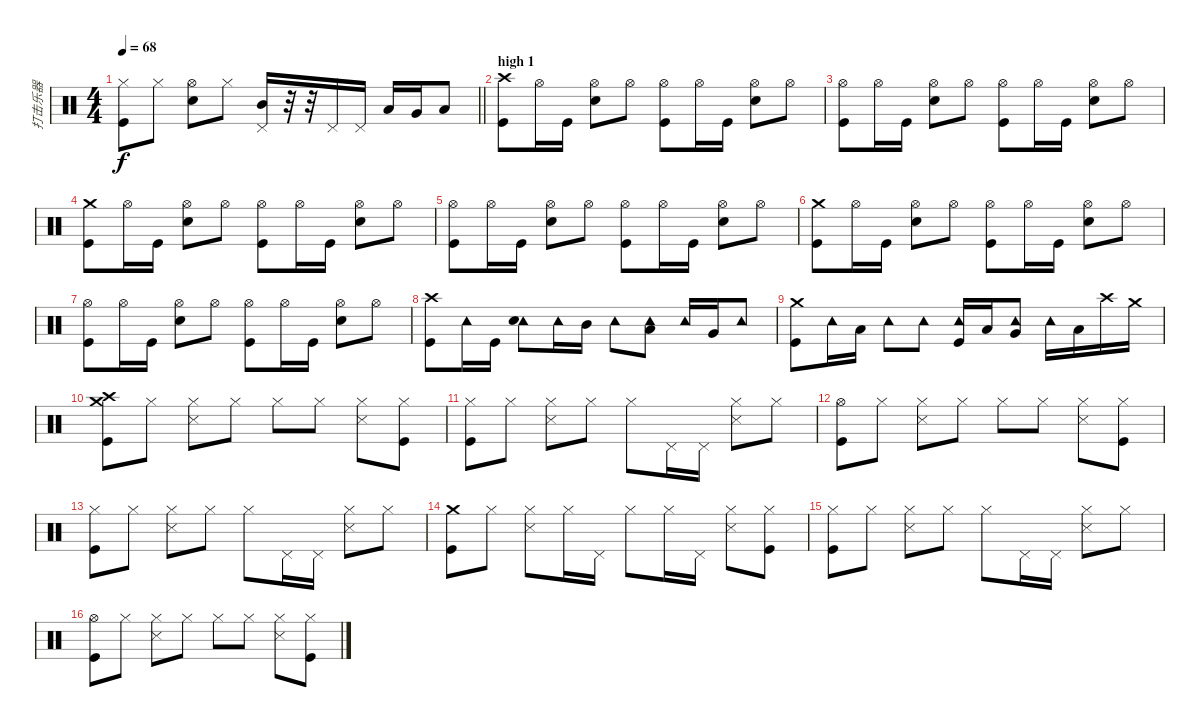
\track ("打击乐器" "打击乐器") {instrument percussion}
\staff {score}
\articulation defaults
\ts (4 4)
\tempo 68
\clef neutral
\barLineRight lightlight
\ks c
("Kick (hit)" "Hi-Hat (closed)").8{dy f} "Hi-Hat (closed)".8 ("Snare (hit) 2" "Hi-Hat (open)").8 "Hi-Hat (closed)".8 ("Mid Tom (hit)" "Pedal Hi-Hat (hit)").16 r.32 r.32 "Pedal Hi-Hat (hit)".16 "Pedal Hi-Hat (hit)".16 "Low Tom (hit)".16 "Very Low Tom (hit)".16 "Low Floor Tom (hit)".8 |
\section ("" "high 1")
("Kick (hit)" "Crash high (hit)").8 "Hi-Hat (open)".16 "Kick (hit)".16 ("Hi-Hat (open)" "Snare (hit) 2").8 "Hi-Hat (open)".8 ("Hi-Hat (open)" "Kick (hit)").8 "Hi-Hat (open)".16 "Kick (hit)".16 ("Hi-Hat (open)" "Snare (hit) 2").8 "Hi-Hat (open)".8 |
("Hi-Hat (open)" "Kick (hit)").8 "Hi-Hat (open)".16 "Kick (hit)".16 ("Hi-Hat (open)" "Snare (hit) 2").8 "Hi-Hat (open)".8 ("Hi-Hat (open)" "Kick (hit)").8 "Hi-Hat (open)".16 "Kick (hit)".16 ("Hi-Hat (open)" "Snare (hit) 2").8 "Hi-Hat (open)".8 |
("Kick (hit)" "Crash medium (hit)").8 "Hi-Hat (open)".16 "Kick (hit)".16 ("Hi-Hat (open)" "Snare (hit) 2").8 "Hi-Hat (open)".8 ("Hi-Hat (open)" "Kick (hit)").8 "Hi-Hat (open)".16 "Kick (hit)".16 ("Hi-Hat (open)" "Snare (hit) 2").8 "Hi-Hat (open)".8 |
("Hi-Hat (open)" "Kick (hit)").8 "Hi-Hat (open)".16 "Kick (hit)".16 ("Hi-Hat (open)" "Snare (hit) 2").8 "Hi-Hat (open)".8 ("Hi-Hat (open)" "Kick (hit)").8 "Hi-Hat (open)".16 "Kick (hit)".16 ("Hi-Hat (open)" "Snare (hit) 2").8 "Hi-Hat (open)".8 |
("Kick (hit)" "Crash medium (hit)").8 "Hi-Hat (open)".16 "Kick (hit)".16 ("Hi-Hat (open)" "Snare (hit) 2").8 "Hi-Hat (open)".8 ("Hi-Hat (open)" "Kick (hit)").8 "Hi-Hat (open)".16 "Kick (hit)".16 ("Hi-Hat (open)" "Snare (hit) 2").8 "Hi-Hat (open)".8 |
("Hi-Hat (open)" "Kick (hit)").8 "Hi-Hat (open)".16 "Kick (hit)".16 ("Hi-Hat (open)" "Snare (hit) 2").8 "Hi-Hat (open)".8 ("Hi-Hat (open)" "Kick (hit)").8 "Hi-Hat (open)".16 "Kick (hit)".16 ("Hi-Hat (open)" "Snare (hit) 2").8 "Hi-Hat (open)".8 |
("Crash high (hit)" "Kick (hit)").8 "Tambourine (hit)".16 "Kick (hit)".16 ("Tambourine (hit)" "Snare (hit) 2").8 "Tambourine (hit)".16 "Mid Tom (hit)".16 "Tambourine (hit)".8 ("Tambourine (hit)" "Low Tom (hit)").8 "Tambourine (hit)".16 "Very Low Tom (hit)".16 "Tambourine (hit)".8 |
("Kick (hit)" "Crash medium (hit)").8 "Tambourine (hit)".16 "Low Tom (hit)".16 "Tambourine (hit)".8 "Tambourine (hit)".8 ("Tambourine (hit)" "Kick (hit)").16 "Low Tom (hit)".16 ("Tambourine (hit)" "Very Low Tom (hit)").8 "Tambourine (hit)".16 "Low Tom (hit)".16 "Crash high (hit)".16 "Crash medium (hit)".16 |
("Kick (hit)" "Crash medium (hit)" "Crash high (hit)").8 "Hi-Hat (closed)".8 ("Snare (side stick) 3" "Hi-Hat (closed)").8 "Hi-Hat (closed)".8 "Hi-Hat (closed)".8 "Hi-Hat (closed)".8 ("Snare (side stick) 3" "Hi-Hat (closed)").8 ("Kick (hit)" "Hi-Hat (closed)").8 |
("Kick (hit)" "Hi-Hat (closed)").8 "Hi-Hat (closed)".8 ("Snare (side stick) 3" "Hi-Hat (closed)").8 "Hi-Hat (closed)".8 "Hi-Hat (closed)".8 "Pedal Hi-Hat (hit)".16 "Pedal Hi-Hat (hit)".16 ("Snare (side stick) 3" "Hi-Hat (closed)").8 "Hi-Hat (closed)".8 |
("Kick (hit)" "Hi-Hat (open)").8 "Hi-Hat (closed)".8 ("Snare (side stick) 3" "Hi-Hat (closed)").8 "Hi-Hat (closed)".8 "Hi-Hat (closed)".8 "Hi-Hat (closed)".8 ("Snare (side stick) 3" "Hi-Hat (closed)").8 ("Kick (hit)" "Hi-Hat (closed)").8 |
("Kick (hit)" "Hi-Hat (closed)").8 "Hi-Hat (closed)".8 ("Snare (side stick) 3" "Hi-Hat (closed)").8 "Hi-Hat (closed)".8 "Hi-Hat (closed)".8 "Pedal Hi-Hat (hit)".16 "Pedal Hi-Hat (hit)".16 ("Snare (side stick) 3" "Hi-Hat (closed)").8 "Hi-Hat (closed)".8 |
("Kick (hit)" "Crash medium (hit)").8 "Hi-Hat (closed)".8 ("Snare (side stick) 3" "Hi-Hat (closed)").8 "Hi-Hat (closed)".16 "Pedal Hi-Hat (hit)".16 "Hi-Hat (closed)".8 "Hi-Hat (closed)".16 "Pedal Hi-Hat (hit)".16 ("Snare (side stick) 3" "Hi-Hat (closed)").8 ("Kick (hit)" "Hi-Hat (closed)").8 |
("Kick (hit)" "Hi-Hat (closed)").8 "Hi-Hat (closed)".8 ("Snare (side stick) 3" "Hi-Hat (closed)").8 "Hi-Hat (closed)".8 "Hi-Hat (closed)".8 "Pedal Hi-Hat (hit)".16 "Pedal Hi-Hat (hit)".16 ("Snare (side stick) 3" "Hi-Hat (closed)").8 "Hi-Hat (closed)".8 |
("Kick (hit)" "Hi-Hat (open)").8 "Hi-Hat (closed)".8 ("Snare (side stick) 3" "Hi-Hat (closed)").8 "Hi-Hat (closed)".8 "Hi-Hat (closed)".8 "Hi-Hat (closed)".8 ("Snare (side stick) 3" "Hi-Hat (closed)").8 ("Kick (hit)" "Hi-Hat (closed)").8
